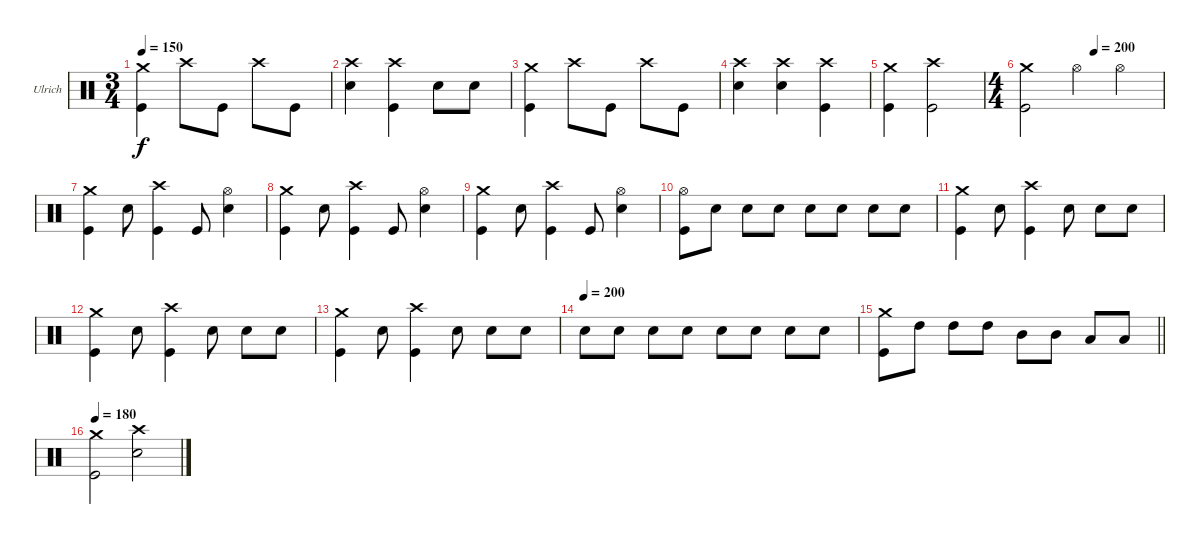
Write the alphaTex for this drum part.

\bracketExtendMode groupsimilarinstruments
\firstSystemTrackNameOrientation horizontal
\otherSystemsTrackNameOrientation horizontal
\track ("Drumkit" "Ulrich") {instrument percussion}
\staff {score}
\articulation defaults
\ts (3 4)
\tempo 150
\clef neutral
\ks c
("Crash medium (hit)" "Kick (hit)").4{dy f} "Crash high (hit)".8 "Kick (hit)".8 "Crash high (hit)".8 "Kick (hit)".8 |
("Crash high (hit)" "Snare (hit) 2").4 ("Crash high (hit)" "Kick (hit)").4 "Snare (hit) 2".8 "Snare (hit) 2".8 |
("Crash medium (hit)" "Kick (hit)").4 "Crash high (hit)".8 "Kick (hit)".8 "Crash high (hit)".8 "Kick (hit)".8 |
("Crash high (hit)" "Snare (hit) 2").4 ("Crash high (hit)" "Snare (hit) 2").4 ("Crash high (hit)" "Kick (hit)").4 |
("Crash medium (hit)" "Kick (hit)").4 ("Crash high (hit)" "Kick (hit)").2 |
\ts (4 4)
\tempo (200 0.5)
("Crash medium (hit)" "Kick (hit)").2 "Hi-Hat (open)".4 "Hi-Hat (open)".4 |
("Crash medium (hit)" "Kick (hit)").4 "Snare (hit) 2".8 ("Crash high (hit)" "Kick (hit)").4 "Kick (hit)".8 ("Hi-Hat (open)" "Snare (hit) 2").4 |
("Crash medium (hit)" "Kick (hit)").4 "Snare (hit) 2".8 ("Crash high (hit)" "Kick (hit)").4 "Kick (hit)".8 ("Hi-Hat (open)" "Snare (hit) 2").4 |
("Crash medium (hit)" "Kick (hit)").4 "Snare (hit) 2".8 ("Crash high (hit)" "Kick (hit)").4 "Kick (hit)".8 ("Hi-Hat (open)" "Snare (hit) 2").4 |
("Hi-Hat (open)" "Kick (hit)").8 "Snare (hit) 2".8 "Snare (hit) 2".8 "Snare (hit) 2".8 "Snare (hit) 2".8 "Snare (hit) 2".8 "Snare (hit) 2".8 "Snare (hit) 2".8 |
("Crash medium (hit)" "Kick (hit)").4 "Snare (hit) 2".8 ("Crash high (hit)" "Kick (hit)").4 "Snare (hit) 2".8 "Snare (hit) 2".8 "Snare (hit) 2".8 |
("Crash medium (hit)" "Kick (hit)").4 "Snare (hit) 2".8 ("Crash high (hit)" "Kick (hit)").4 "Snare (hit) 2".8 "Snare (hit) 2".8 "Snare (hit) 2".8 |
("Crash medium (hit)" "Kick (hit)").4 "Snare (hit) 2".8 ("Crash high (hit)" "Kick (hit)").4 "Snare (hit) 2".8 "Snare (hit) 2".8 "Snare (hit) 2".8 |
\tempo (200)
"Snare (hit) 2".8 "Snare (hit) 2".8 "Snare (hit) 2".8 "Snare (hit) 2".8 "Snare (hit) 2".8 "Snare (hit) 2".8 "Snare (hit) 2".8 "Snare (hit) 2".8 |
\barLineRight lightlight
("Crash medium (hit)" "Kick (hit)").8 "High Tom (hit)".8 "High Tom (hit)".8 "High Tom (hit)".8 "Mid Tom (hit)".8 "Mid Tom (hit)".8 "Low Tom (hit)".8 "Low Tom (hit)".8 |
\tempo 180
("Crash medium (hit)" "Kick (hit)").2 ("Crash high (hit)" "Snare (hit) 2").2
